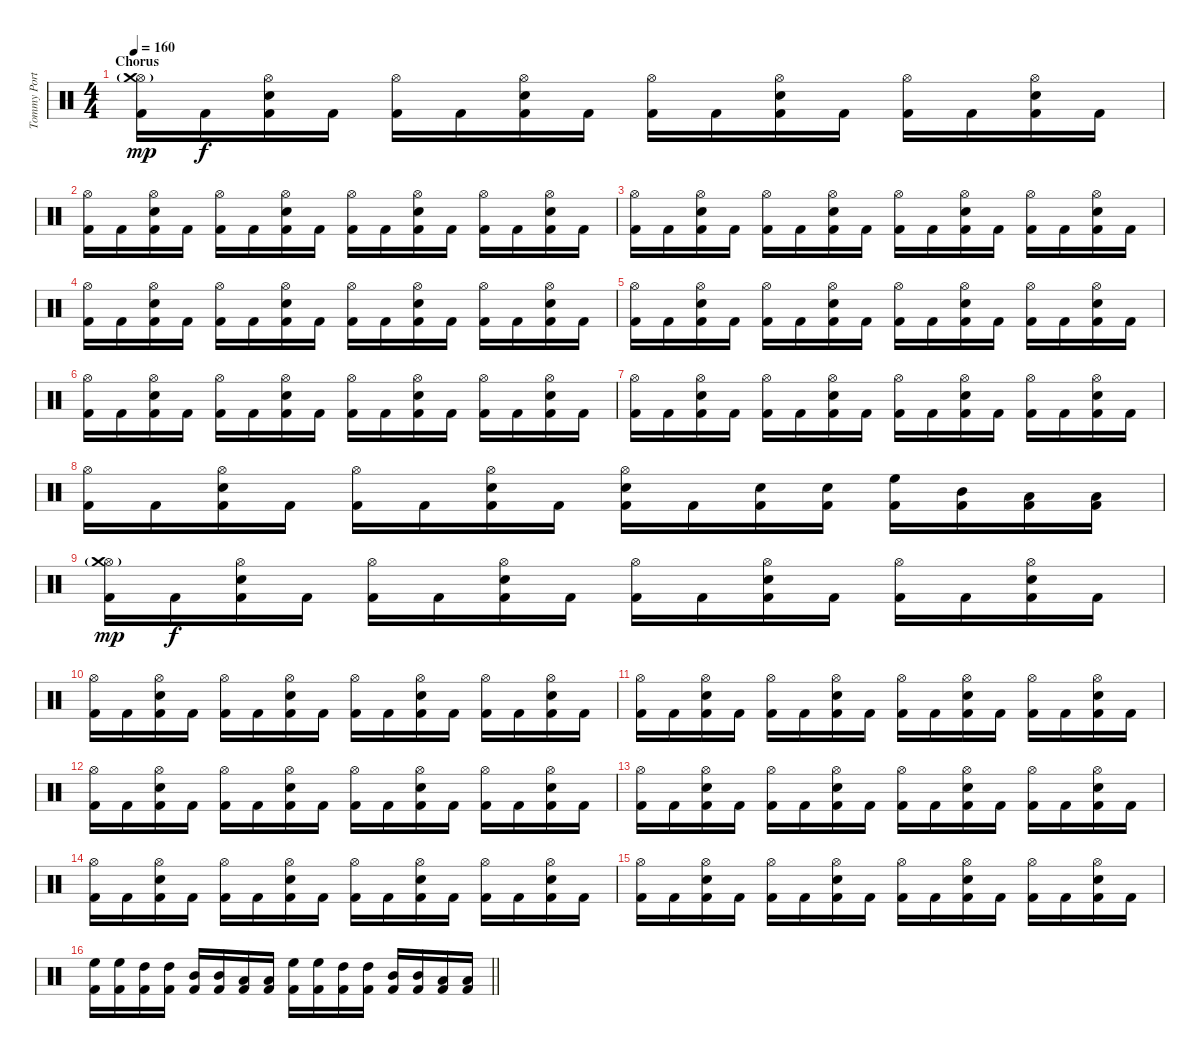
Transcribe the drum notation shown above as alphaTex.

\track ("Tommy Portino" "Tommy Port") {instrument percussion}
\staff {score}
\articulation defaults
\ts (4 4)
\section ("" "Chorus")
\tempo 160
\clef neutral
\ks c
("Hi-Hat (open)"{g} "Crash medium (hit)" "Kick (hit) 2").16{dy mp} "Kick (hit) 2".16{dy f} ("Hi-Hat (open)" "Snare (hit) 2" "Kick (hit) 2").16 "Kick (hit) 2".16 ("Hi-Hat (open)" "Kick (hit) 2").16 "Kick (hit) 2".16 ("Hi-Hat (open)" "Snare (hit) 2" "Kick (hit) 2").16 "Kick (hit) 2".16 ("Hi-Hat (open)" "Kick (hit) 2").16 "Kick (hit) 2".16 ("Hi-Hat (open)" "Snare (hit) 2" "Kick (hit) 2").16 "Kick (hit) 2".16 ("Hi-Hat (open)" "Kick (hit) 2").16 "Kick (hit) 2".16 ("Hi-Hat (open)" "Snare (hit) 2" "Kick (hit) 2").16 "Kick (hit) 2".16 |
("Hi-Hat (open)" "Kick (hit) 2").16 "Kick (hit) 2".16 ("Hi-Hat (open)" "Snare (hit) 2" "Kick (hit) 2").16 "Kick (hit) 2".16 ("Hi-Hat (open)" "Kick (hit) 2").16 "Kick (hit) 2".16 ("Hi-Hat (open)" "Snare (hit) 2" "Kick (hit) 2").16 "Kick (hit) 2".16 ("Hi-Hat (open)" "Kick (hit) 2").16 "Kick (hit) 2".16 ("Hi-Hat (open)" "Snare (hit) 2" "Kick (hit) 2").16 "Kick (hit) 2".16 ("Hi-Hat (open)" "Kick (hit) 2").16 "Kick (hit) 2".16 ("Hi-Hat (open)" "Snare (hit) 2" "Kick (hit) 2").16 "Kick (hit) 2".16 |
("Hi-Hat (open)" "Kick (hit) 2").16 "Kick (hit) 2".16 ("Hi-Hat (open)" "Snare (hit) 2" "Kick (hit) 2").16 "Kick (hit) 2".16 ("Hi-Hat (open)" "Kick (hit) 2").16 "Kick (hit) 2".16 ("Hi-Hat (open)" "Snare (hit) 2" "Kick (hit) 2").16 "Kick (hit) 2".16 ("Hi-Hat (open)" "Kick (hit) 2").16 "Kick (hit) 2".16 ("Hi-Hat (open)" "Snare (hit) 2" "Kick (hit) 2").16 "Kick (hit) 2".16 ("Hi-Hat (open)" "Kick (hit) 2").16 "Kick (hit) 2".16 ("Hi-Hat (open)" "Snare (hit) 2" "Kick (hit) 2").16 "Kick (hit) 2".16 |
("Hi-Hat (open)" "Kick (hit) 2").16 "Kick (hit) 2".16 ("Hi-Hat (open)" "Snare (hit) 2" "Kick (hit) 2").16 "Kick (hit) 2".16 ("Hi-Hat (open)" "Kick (hit) 2").16 "Kick (hit) 2".16 ("Hi-Hat (open)" "Snare (hit) 2" "Kick (hit) 2").16 "Kick (hit) 2".16 ("Hi-Hat (open)" "Kick (hit) 2").16 "Kick (hit) 2".16 ("Hi-Hat (open)" "Snare (hit) 2" "Kick (hit) 2").16 "Kick (hit) 2".16 ("Hi-Hat (open)" "Kick (hit) 2").16 "Kick (hit) 2".16 ("Hi-Hat (open)" "Snare (hit) 2" "Kick (hit) 2").16 "Kick (hit) 2".16 |
("Hi-Hat (open)" "Kick (hit) 2").16 "Kick (hit) 2".16 ("Hi-Hat (open)" "Snare (hit) 2" "Kick (hit) 2").16 "Kick (hit) 2".16 ("Hi-Hat (open)" "Kick (hit) 2").16 "Kick (hit) 2".16 ("Hi-Hat (open)" "Snare (hit) 2" "Kick (hit) 2").16 "Kick (hit) 2".16 ("Hi-Hat (open)" "Kick (hit) 2").16 "Kick (hit) 2".16 ("Hi-Hat (open)" "Snare (hit) 2" "Kick (hit) 2").16 "Kick (hit) 2".16 ("Hi-Hat (open)" "Kick (hit) 2").16 "Kick (hit) 2".16 ("Hi-Hat (open)" "Snare (hit) 2" "Kick (hit) 2").16 "Kick (hit) 2".16 |
("Hi-Hat (open)" "Kick (hit) 2").16 "Kick (hit) 2".16 ("Hi-Hat (open)" "Snare (hit) 2" "Kick (hit) 2").16 "Kick (hit) 2".16 ("Hi-Hat (open)" "Kick (hit) 2").16 "Kick (hit) 2".16 ("Hi-Hat (open)" "Snare (hit) 2" "Kick (hit) 2").16 "Kick (hit) 2".16 ("Hi-Hat (open)" "Kick (hit) 2").16 "Kick (hit) 2".16 ("Hi-Hat (open)" "Snare (hit) 2" "Kick (hit) 2").16 "Kick (hit) 2".16 ("Hi-Hat (open)" "Kick (hit) 2").16 "Kick (hit) 2".16 ("Hi-Hat (open)" "Snare (hit) 2" "Kick (hit) 2").16 "Kick (hit) 2".16 |
("Hi-Hat (open)" "Kick (hit) 2").16 "Kick (hit) 2".16 ("Hi-Hat (open)" "Snare (hit) 2" "Kick (hit) 2").16 "Kick (hit) 2".16 ("Hi-Hat (open)" "Kick (hit) 2").16 "Kick (hit) 2".16 ("Hi-Hat (open)" "Snare (hit) 2" "Kick (hit) 2").16 "Kick (hit) 2".16 ("Hi-Hat (open)" "Kick (hit) 2").16 "Kick (hit) 2".16 ("Hi-Hat (open)" "Snare (hit) 2" "Kick (hit) 2").16 "Kick (hit) 2".16 ("Hi-Hat (open)" "Kick (hit) 2").16 "Kick (hit) 2".16 ("Hi-Hat (open)" "Snare (hit) 2" "Kick (hit) 2").16 "Kick (hit) 2".16 |
("Hi-Hat (open)" "Kick (hit) 2").16 "Kick (hit) 2".16 ("Hi-Hat (open)" "Snare (hit) 2" "Kick (hit) 2").16 "Kick (hit) 2".16 ("Hi-Hat (open)" "Kick (hit) 2").16 "Kick (hit) 2".16 ("Hi-Hat (open)" "Snare (hit) 2" "Kick (hit) 2").16 "Kick (hit) 2".16 ("Hi-Hat (open)" "Snare (hit) 2" "Kick (hit) 2").16 "Kick (hit) 2".16 ("Snare (hit) 2" "Kick (hit) 2").16 ("Snare (hit) 2" "Kick (hit) 2").16 ("High Floor Tom (hit)" "Kick (hit) 2").16 ("Mid Tom (hit)" "Kick (hit) 2").16 ("Low Tom (hit)" "Kick (hit) 2").16 ("Low Tom (hit)" "Kick (hit) 2").16 |
("Hi-Hat (open)"{g} "Crash medium (hit)" "Kick (hit) 2").16{dy mp} "Kick (hit) 2".16{dy f} ("Hi-Hat (open)" "Snare (hit) 2" "Kick (hit) 2").16 "Kick (hit) 2".16 ("Hi-Hat (open)" "Kick (hit) 2").16 "Kick (hit) 2".16 ("Hi-Hat (open)" "Snare (hit) 2" "Kick (hit) 2").16 "Kick (hit) 2".16 ("Hi-Hat (open)" "Kick (hit) 2").16 "Kick (hit) 2".16 ("Hi-Hat (open)" "Snare (hit) 2" "Kick (hit) 2").16 "Kick (hit) 2".16 ("Hi-Hat (open)" "Kick (hit) 2").16 "Kick (hit) 2".16 ("Hi-Hat (open)" "Snare (hit) 2" "Kick (hit) 2").16 "Kick (hit) 2".16 |
("Hi-Hat (open)" "Kick (hit) 2").16 "Kick (hit) 2".16 ("Hi-Hat (open)" "Snare (hit) 2" "Kick (hit) 2").16 "Kick (hit) 2".16 ("Hi-Hat (open)" "Kick (hit) 2").16 "Kick (hit) 2".16 ("Hi-Hat (open)" "Snare (hit) 2" "Kick (hit) 2").16 "Kick (hit) 2".16 ("Hi-Hat (open)" "Kick (hit) 2").16 "Kick (hit) 2".16 ("Hi-Hat (open)" "Snare (hit) 2" "Kick (hit) 2").16 "Kick (hit) 2".16 ("Hi-Hat (open)" "Kick (hit) 2").16 "Kick (hit) 2".16 ("Hi-Hat (open)" "Snare (hit) 2" "Kick (hit) 2").16 "Kick (hit) 2".16 |
("Hi-Hat (open)" "Kick (hit) 2").16 "Kick (hit) 2".16 ("Hi-Hat (open)" "Snare (hit) 2" "Kick (hit) 2").16 "Kick (hit) 2".16 ("Hi-Hat (open)" "Kick (hit) 2").16 "Kick (hit) 2".16 ("Hi-Hat (open)" "Snare (hit) 2" "Kick (hit) 2").16 "Kick (hit) 2".16 ("Hi-Hat (open)" "Kick (hit) 2").16 "Kick (hit) 2".16 ("Hi-Hat (open)" "Snare (hit) 2" "Kick (hit) 2").16 "Kick (hit) 2".16 ("Hi-Hat (open)" "Kick (hit) 2").16 "Kick (hit) 2".16 ("Hi-Hat (open)" "Snare (hit) 2" "Kick (hit) 2").16 "Kick (hit) 2".16 |
("Hi-Hat (open)" "Kick (hit) 2").16 "Kick (hit) 2".16 ("Hi-Hat (open)" "Snare (hit) 2" "Kick (hit) 2").16 "Kick (hit) 2".16 ("Hi-Hat (open)" "Kick (hit) 2").16 "Kick (hit) 2".16 ("Hi-Hat (open)" "Snare (hit) 2" "Kick (hit) 2").16 "Kick (hit) 2".16 ("Hi-Hat (open)" "Kick (hit) 2").16 "Kick (hit) 2".16 ("Hi-Hat (open)" "Snare (hit) 2" "Kick (hit) 2").16 "Kick (hit) 2".16 ("Hi-Hat (open)" "Kick (hit) 2").16 "Kick (hit) 2".16 ("Hi-Hat (open)" "Snare (hit) 2" "Kick (hit) 2").16 "Kick (hit) 2".16 |
("Hi-Hat (open)" "Kick (hit) 2").16 "Kick (hit) 2".16 ("Hi-Hat (open)" "Snare (hit) 2" "Kick (hit) 2").16 "Kick (hit) 2".16 ("Hi-Hat (open)" "Kick (hit) 2").16 "Kick (hit) 2".16 ("Hi-Hat (open)" "Snare (hit) 2" "Kick (hit) 2").16 "Kick (hit) 2".16 ("Hi-Hat (open)" "Kick (hit) 2").16 "Kick (hit) 2".16 ("Hi-Hat (open)" "Snare (hit) 2" "Kick (hit) 2").16 "Kick (hit) 2".16 ("Hi-Hat (open)" "Kick (hit) 2").16 "Kick (hit) 2".16 ("Hi-Hat (open)" "Snare (hit) 2" "Kick (hit) 2").16 "Kick (hit) 2".16 |
("Hi-Hat (open)" "Kick (hit) 2").16 "Kick (hit) 2".16 ("Hi-Hat (open)" "Snare (hit) 2" "Kick (hit) 2").16 "Kick (hit) 2".16 ("Hi-Hat (open)" "Kick (hit) 2").16 "Kick (hit) 2".16 ("Hi-Hat (open)" "Snare (hit) 2" "Kick (hit) 2").16 "Kick (hit) 2".16 ("Hi-Hat (open)" "Kick (hit) 2").16 "Kick (hit) 2".16 ("Hi-Hat (open)" "Snare (hit) 2" "Kick (hit) 2").16 "Kick (hit) 2".16 ("Hi-Hat (open)" "Kick (hit) 2").16 "Kick (hit) 2".16 ("Hi-Hat (open)" "Snare (hit) 2" "Kick (hit) 2").16 "Kick (hit) 2".16 |
("Hi-Hat (open)" "Kick (hit) 2").16 "Kick (hit) 2".16 ("Hi-Hat (open)" "Snare (hit) 2" "Kick (hit) 2").16 "Kick (hit) 2".16 ("Hi-Hat (open)" "Kick (hit) 2").16 "Kick (hit) 2".16 ("Hi-Hat (open)" "Snare (hit) 2" "Kick (hit) 2").16 "Kick (hit) 2".16 ("Hi-Hat (open)" "Kick (hit) 2").16 "Kick (hit) 2".16 ("Hi-Hat (open)" "Snare (hit) 2" "Kick (hit) 2").16 "Kick (hit) 2".16 ("Hi-Hat (open)" "Kick (hit) 2").16 "Kick (hit) 2".16 ("Hi-Hat (open)" "Snare (hit) 2" "Kick (hit) 2").16 "Kick (hit) 2".16 |
\barLineRight lightlight
("High Floor Tom (hit)" "Kick (hit) 2").16 ("High Floor Tom (hit)" "Kick (hit) 2").16 ("High Tom (hit)" "Kick (hit) 2").16 ("High Tom (hit)" "Kick (hit) 2").16 ("Mid Tom (hit)" "Kick (hit) 2").16 ("Mid Tom (hit)" "Kick (hit) 2").16 ("Low Tom (hit)" "Kick (hit) 2").16 ("Low Tom (hit)" "Kick (hit) 2").16 ("High Floor Tom (hit)" "Kick (hit) 2").16 ("High Floor Tom (hit)" "Kick (hit) 2").16 ("High Tom (hit)" "Kick (hit) 2").16 ("High Tom (hit)" "Kick (hit) 2").16 ("Mid Tom (hit)" "Kick (hit) 2").16 ("Mid Tom (hit)" "Kick (hit) 2").16 ("Low Tom (hit)" "Kick (hit) 2").16 ("Low Tom (hit)" "Kick (hit) 2").16
